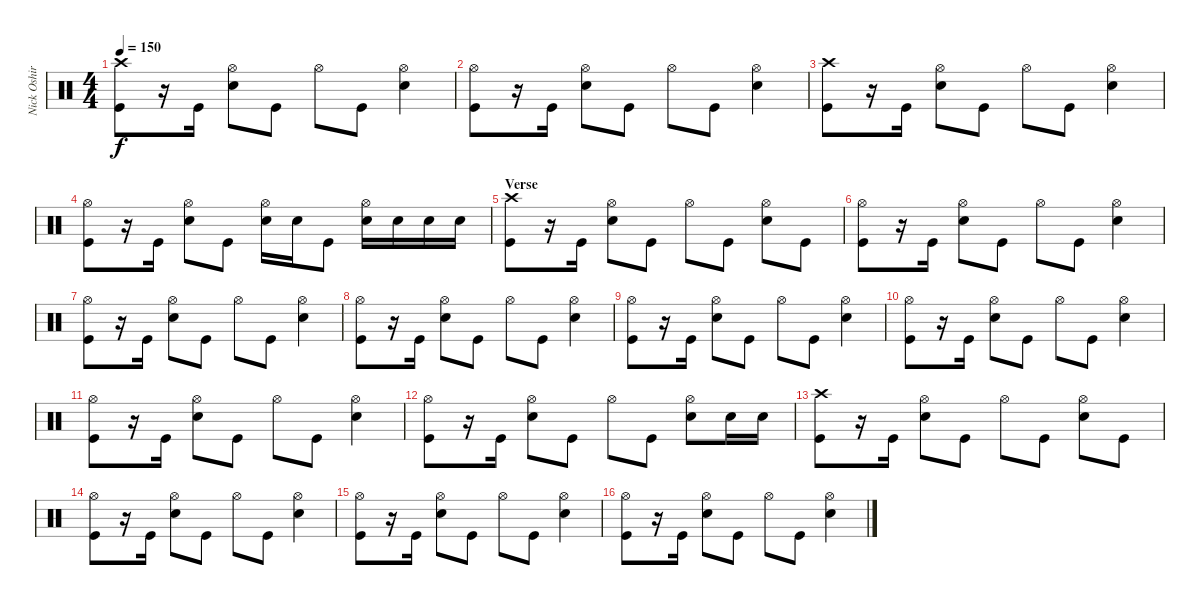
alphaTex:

\track ("Nick Oshiro" "Nick Oshir") {instrument percussion}
\staff {score}
\articulation defaults
\ts (4 4)
\tempo 150
\clef neutral
\ks c
("Crash high (hit)" "Kick (hit)").8{dy f} r.16 "Kick (hit)".16 ("Hi-Hat (open)" "Snare (hit) 2").8 "Kick (hit)".8 "Hi-Hat (open)".8 "Kick (hit)".8 ("Hi-Hat (open)" "Snare (hit) 2").4 |
("Hi-Hat (open)" "Kick (hit)").8 r.16 "Kick (hit)".16 ("Hi-Hat (open)" "Snare (hit) 2").8 "Kick (hit)".8 "Hi-Hat (open)".8 "Kick (hit)".8 ("Hi-Hat (open)" "Snare (hit) 2").4 |
("Crash high (hit)" "Kick (hit)").8 r.16 "Kick (hit)".16 ("Hi-Hat (open)" "Snare (hit) 2").8 "Kick (hit)".8 "Hi-Hat (open)".8 "Kick (hit)".8 ("Hi-Hat (open)" "Snare (hit) 2").4 |
("Hi-Hat (open)" "Kick (hit)").8 r.16 "Kick (hit)".16 ("Hi-Hat (open)" "Snare (hit) 2").8 "Kick (hit)".8 ("Hi-Hat (open)" "Snare (hit) 2").16 "Snare (hit) 2".16 "Kick (hit)".8 ("Hi-Hat (open)" "Snare (hit) 2").16 "Snare (hit) 2".16 "Snare (hit) 2".16 "Snare (hit) 2".16 |
\section ("" "Verse")
("Crash high (hit)" "Kick (hit)").8 r.16 "Kick (hit)".16 ("Hi-Hat (open)" "Snare (hit) 2").8 "Kick (hit)".8 "Hi-Hat (open)".8 "Kick (hit)".8 ("Hi-Hat (open)" "Snare (hit) 2").8 "Kick (hit)".8 |
("Hi-Hat (open)" "Kick (hit)").8 r.16 "Kick (hit)".16 ("Hi-Hat (open)" "Snare (hit) 2").8 "Kick (hit)".8 "Hi-Hat (open)".8 "Kick (hit)".8 ("Hi-Hat (open)" "Snare (hit) 2").4 |
("Hi-Hat (open)" "Kick (hit)").8 r.16 "Kick (hit)".16 ("Hi-Hat (open)" "Snare (hit) 2").8 "Kick (hit)".8 "Hi-Hat (open)".8 "Kick (hit)".8 ("Hi-Hat (open)" "Snare (hit) 2").4 |
("Hi-Hat (open)" "Kick (hit)").8 r.16 "Kick (hit)".16 ("Hi-Hat (open)" "Snare (hit) 2").8 "Kick (hit)".8 "Hi-Hat (open)".8 "Kick (hit)".8 ("Hi-Hat (open)" "Snare (hit) 2").4 |
("Hi-Hat (open)" "Kick (hit)").8 r.16 "Kick (hit)".16 ("Hi-Hat (open)" "Snare (hit) 2").8 "Kick (hit)".8 "Hi-Hat (open)".8 "Kick (hit)".8 ("Hi-Hat (open)" "Snare (hit) 2").4 |
("Hi-Hat (open)" "Kick (hit)").8 r.16 "Kick (hit)".16 ("Hi-Hat (open)" "Snare (hit) 2").8 "Kick (hit)".8 "Hi-Hat (open)".8 "Kick (hit)".8 ("Hi-Hat (open)" "Snare (hit) 2").4 |
("Hi-Hat (open)" "Kick (hit)").8 r.16 "Kick (hit)".16 ("Hi-Hat (open)" "Snare (hit) 2").8 "Kick (hit)".8 "Hi-Hat (open)".8 "Kick (hit)".8 ("Hi-Hat (open)" "Snare (hit) 2").4 |
("Hi-Hat (open)" "Kick (hit)").8 r.16 "Kick (hit)".16 ("Hi-Hat (open)" "Snare (hit) 2").8 "Kick (hit)".8 "Hi-Hat (open)".8 "Kick (hit)".8 ("Hi-Hat (open)" "Snare (hit) 2").8 "Snare (hit) 2".16 "Snare (hit) 2".16 |
("Crash high (hit)" "Kick (hit)").8 r.16 "Kick (hit)".16 ("Hi-Hat (open)" "Snare (hit) 2").8 "Kick (hit)".8 "Hi-Hat (open)".8 "Kick (hit)".8 ("Hi-Hat (open)" "Snare (hit) 2").8 "Kick (hit)".8 |
("Hi-Hat (open)" "Kick (hit)").8 r.16 "Kick (hit)".16 ("Hi-Hat (open)" "Snare (hit) 2").8 "Kick (hit)".8 "Hi-Hat (open)".8 "Kick (hit)".8 ("Hi-Hat (open)" "Snare (hit) 2").4 |
("Hi-Hat (open)" "Kick (hit)").8 r.16 "Kick (hit)".16 ("Hi-Hat (open)" "Snare (hit) 2").8 "Kick (hit)".8 "Hi-Hat (open)".8 "Kick (hit)".8 ("Hi-Hat (open)" "Snare (hit) 2").4 |
("Hi-Hat (open)" "Kick (hit)").8 r.16 "Kick (hit)".16 ("Hi-Hat (open)" "Snare (hit) 2").8 "Kick (hit)".8 "Hi-Hat (open)".8 "Kick (hit)".8 ("Hi-Hat (open)" "Snare (hit) 2").4
